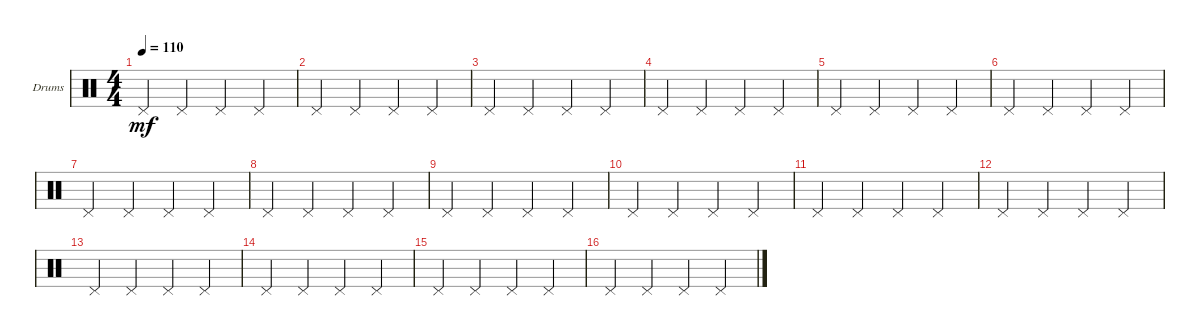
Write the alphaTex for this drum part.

\defaultSystemsLayout 4
\bracketExtendMode groupsimilarinstruments
\firstSystemTrackNameOrientation horizontal
\otherSystemsTrackNameOrientation horizontal
\track ("Drumkit" "Drums") {instrument percussion}
\staff {score}
\articulation defaults
\ts (4 4)
\tempo 110
\clef neutral
\ks c "Pedal Hi-Hat (hit)".4{dy mf} "Pedal Hi-Hat (hit)".4 "Pedal Hi-Hat (hit)".4 "Pedal Hi-Hat (hit)".4
|
"Pedal Hi-Hat (hit)".4 "Pedal Hi-Hat (hit)".4 "Pedal Hi-Hat (hit)".4 "Pedal Hi-Hat (hit)".4 |
"Pedal Hi-Hat (hit)".4 "Pedal Hi-Hat (hit)".4 "Pedal Hi-Hat (hit)".4 "Pedal Hi-Hat (hit)".4 |
"Pedal Hi-Hat (hit)".4 "Pedal Hi-Hat (hit)".4 "Pedal Hi-Hat (hit)".4 "Pedal Hi-Hat (hit)".4 |
"Pedal Hi-Hat (hit)".4 "Pedal Hi-Hat (hit)".4 "Pedal Hi-Hat (hit)".4 "Pedal Hi-Hat (hit)".4 |
"Pedal Hi-Hat (hit)".4 "Pedal Hi-Hat (hit)".4 "Pedal Hi-Hat (hit)".4 "Pedal Hi-Hat (hit)".4 |
"Pedal Hi-Hat (hit)".4 "Pedal Hi-Hat (hit)".4 "Pedal Hi-Hat (hit)".4 "Pedal Hi-Hat (hit)".4 |
"Pedal Hi-Hat (hit)".4 "Pedal Hi-Hat (hit)".4 "Pedal Hi-Hat (hit)".4 "Pedal Hi-Hat (hit)".4 |
"Pedal Hi-Hat (hit)".4 "Pedal Hi-Hat (hit)".4 "Pedal Hi-Hat (hit)".4 "Pedal Hi-Hat (hit)".4 |
"Pedal Hi-Hat (hit)".4 "Pedal Hi-Hat (hit)".4 "Pedal Hi-Hat (hit)".4 "Pedal Hi-Hat (hit)".4 |
"Pedal Hi-Hat (hit)".4 "Pedal Hi-Hat (hit)".4 "Pedal Hi-Hat (hit)".4 "Pedal Hi-Hat (hit)".4 |
"Pedal Hi-Hat (hit)".4 "Pedal Hi-Hat (hit)".4 "Pedal Hi-Hat (hit)".4 "Pedal Hi-Hat (hit)".4 |
"Pedal Hi-Hat (hit)".4 "Pedal Hi-Hat (hit)".4 "Pedal Hi-Hat (hit)".4 "Pedal Hi-Hat (hit)".4 |
"Pedal Hi-Hat (hit)".4 "Pedal Hi-Hat (hit)".4 "Pedal Hi-Hat (hit)".4 "Pedal Hi-Hat (hit)".4 |
"Pedal Hi-Hat (hit)".4 "Pedal Hi-Hat (hit)".4 "Pedal Hi-Hat (hit)".4 "Pedal Hi-Hat (hit)".4 |
"Pedal Hi-Hat (hit)".4 "Pedal Hi-Hat (hit)".4 "Pedal Hi-Hat (hit)".4 "Pedal Hi-Hat (hit)".4
